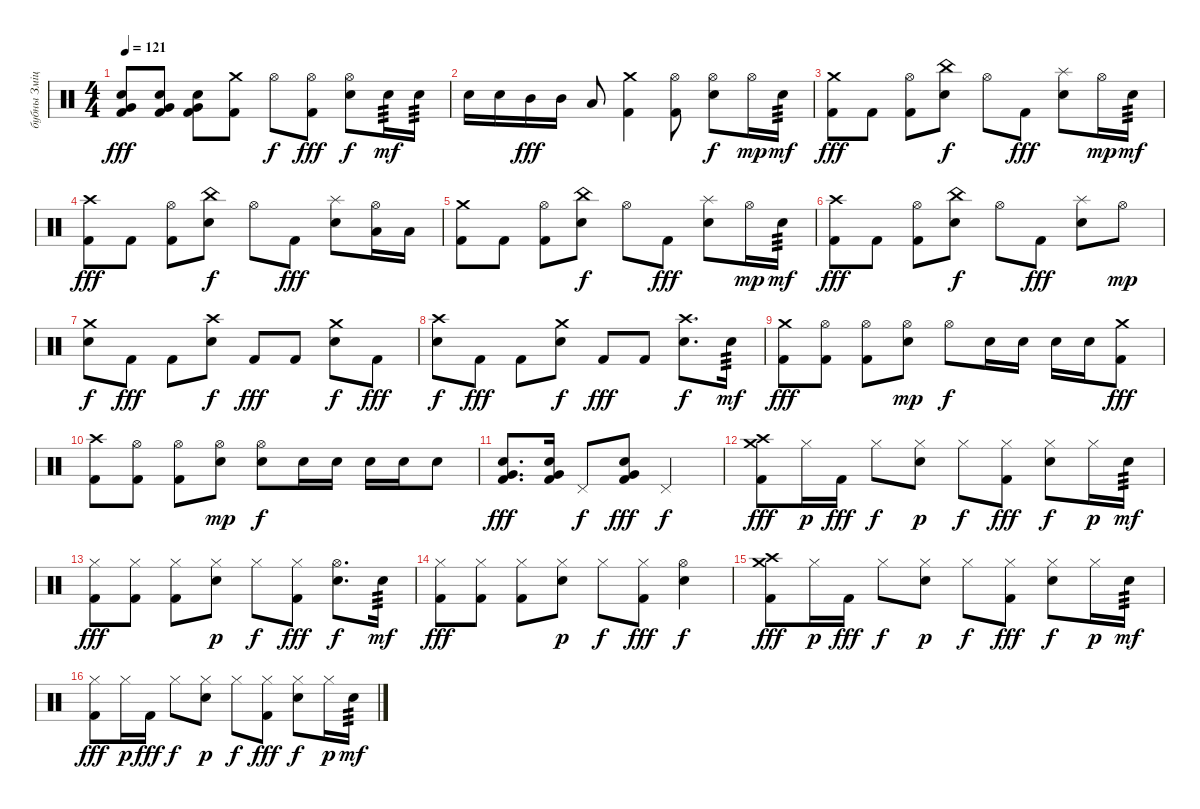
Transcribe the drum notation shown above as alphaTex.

\track ("бубны Змiцер " "бубны Змiц") {instrument percussion}
\staff {score}
\articulation defaults
\ts (4 4)
\tempo 121
\clef neutral
\ks c
("Very Low Tom (hit)" "Electric Snare (hit)" "Kick (hit) 2").8{dy fff} ("Very Low Tom (hit)" "Electric Snare (hit)" "Kick (hit) 2").8 ("Very Low Tom (hit)" "Electric Snare (hit)" "Kick (hit) 2").8 ("Crash medium (hit)" "Kick (hit) 2").8 "Hi-Hat (open)".8{dy f} ("Hi-Hat (open)" "Kick (hit) 2").8{dy fff} ("Hi-Hat (open)" "Electric Snare (hit)").8{dy f} "Electric Snare (hit)".16{tp 3 dy mf} "Electric Snare (hit)".16{tp 3} |
"Electric Snare (hit)".16 "Electric Snare (hit)".16 "Mid Tom (hit)".16{dy fff} "Mid Tom (hit)".16 "Low Tom (hit)".8 ("Crash medium (hit)" "Kick (hit) 2").4 ("Hi-Hat (open)" "Kick (hit) 2").8 ("Hi-Hat (open)" "Electric Snare (hit)").8{dy f} "Hi-Hat (open)".16{dy mp} "Electric Snare (hit)".16{tp 3 dy mf} |
("Crash medium (hit)" "Kick (hit) 2").8{dy fff} "Kick (hit) 2".8 ("Hi-Hat (open)" "Kick (hit) 2").8 ("China (hit)" "Electric Snare (hit)").8{dy f} "Hi-Hat (open)".8 "Kick (hit) 2".8{dy fff} ("Splash (hit)" "Electric Snare (hit)").8 "Hi-Hat (open)".16{dy mp} "Electric Snare (hit)".16{tp 3 dy mf} |
("Crash high (hit)" "Kick (hit) 2").8{dy fff} "Kick (hit) 2".8 ("Hi-Hat (open)" "Kick (hit) 2").8 ("China (hit)" "Electric Snare (hit)").8{dy f} "Hi-Hat (open)".8 "Kick (hit) 2".8{dy fff} ("Splash (hit)" "Electric Snare (hit)").8 ("Hi-Hat (open)" "Low Tom (hit)").16 "Low Tom (hit)".16 |
("Crash medium (hit)" "Kick (hit) 2").8 "Kick (hit) 2".8 ("Hi-Hat (open)" "Kick (hit) 2").8 ("China (hit)" "Electric Snare (hit)").8{dy f} "Hi-Hat (open)".8 "Kick (hit) 2".8{dy fff} ("Splash (hit)" "Electric Snare (hit)").8 "Hi-Hat (open)".16{dy mp} "Electric Snare (hit)".16{tp 3 dy mf} |
("Crash high (hit)" "Kick (hit) 2").8{dy fff} "Kick (hit) 2".8 ("Hi-Hat (open)" "Kick (hit) 2").8 ("China (hit)" "Electric Snare (hit)").8{dy f} "Hi-Hat (open)".8 "Kick (hit) 2".8{dy fff} ("Splash (hit)" "Electric Snare (hit)").8 "Hi-Hat (open)".8{dy mp} |
("Crash medium (hit)" "Electric Snare (hit)").8{dy f} "Kick (hit) 2".8{dy fff} "Kick (hit) 2".8 ("Crash high (hit)" "Electric Snare (hit)").8{dy f} "Kick (hit) 2".8{dy fff} "Kick (hit) 2".8 ("Crash medium (hit)" "Electric Snare (hit)").8{dy f} "Kick (hit) 2".8{dy fff} |
("Crash high (hit)" "Electric Snare (hit)").8{dy f} "Kick (hit) 2".8{dy fff} "Kick (hit) 2".8 ("Crash medium (hit)" "Electric Snare (hit)").8{dy f} "Kick (hit) 2".8{dy fff} "Kick (hit) 2".8 ("Crash high (hit)" "Electric Snare (hit)").8{d dy f} "Electric Snare (hit)".16{tp 3 dy mf} |
("Crash medium (hit)" "Kick (hit) 2").8{dy fff} ("Hi-Hat (open)" "Kick (hit) 2").8 ("Hi-Hat (open)" "Kick (hit) 2").8 ("Hi-Hat (open)" "Electric Snare (hit)").8{dy mp} "Hi-Hat (open)".8{dy f} "Electric Snare (hit)".16 "Electric Snare (hit)".16 "Electric Snare (hit)".16 "Electric Snare (hit)".16 ("Crash medium (hit)" "Kick (hit) 2").8{dy fff} |
("Crash high (hit)" "Kick (hit) 2").8 ("Hi-Hat (open)" "Kick (hit) 2").8 ("Hi-Hat (open)" "Kick (hit) 2").8 ("Hi-Hat (open)" "Electric Snare (hit)").8{dy mp} ("Hi-Hat (open)" "Electric Snare (hit)").8{dy f} "Electric Snare (hit)".16 "Electric Snare (hit)".16 "Electric Snare (hit)".16 "Electric Snare (hit)".16 "Electric Snare (hit)".8 |
("Very Low Tom (hit)" "Electric Snare (hit)" "Kick (hit) 2").8{d dy fff} ("Very Low Tom (hit)" "Electric Snare (hit)" "Kick (hit) 2").16 "Pedal Hi-Hat (hit)".8{dy f} ("Very Low Tom (hit)" "Electric Snare (hit)" "Kick (hit) 2").8{dy fff} "Pedal Hi-Hat (hit)".2{dy f} |
("Crash high (hit)" "Crash medium (hit)" "Kick (hit) 2").8{dy fff} "Hi-Hat (closed)".16{dy p} "Kick (hit) 2".16{dy fff} "Hi-Hat (closed)".8{dy f} ("Hi-Hat (closed)" "Electric Snare (hit)").8{dy p} "Hi-Hat (closed)".8{dy f} ("Hi-Hat (closed)" "Kick (hit) 2").8{dy fff} ("Hi-Hat (closed)" "Electric Snare (hit)").8{dy f} "Hi-Hat (closed)".16{dy p} "Electric Snare (hit)".16{tp 3 dy mf} |
("Hi-Hat (closed)" "Kick (hit) 2").8{dy fff} ("Hi-Hat (closed)" "Kick (hit) 2").8 ("Hi-Hat (closed)" "Kick (hit) 2").8 ("Hi-Hat (closed)" "Electric Snare (hit)").8{dy p} "Hi-Hat (closed)".8{dy f} ("Hi-Hat (closed)" "Kick (hit) 2").8{dy fff} ("Hi-Hat (open)" "Electric Snare (hit)").8{d dy f} "Electric Snare (hit)".16{tp 3 dy mf} |
("Hi-Hat (closed)" "Kick (hit) 2").8{dy fff} ("Hi-Hat (closed)" "Kick (hit) 2").8 ("Hi-Hat (closed)" "Kick (hit) 2").8 ("Hi-Hat (closed)" "Electric Snare (hit)").8{dy p} "Hi-Hat (closed)".8{dy f} ("Hi-Hat (closed)" "Kick (hit) 2").8{dy fff} ("Hi-Hat (open)" "Electric Snare (hit)").4{dy f} |
("Crash high (hit)" "Crash medium (hit)" "Kick (hit) 2").8{dy fff} "Hi-Hat (closed)".16{dy p} "Kick (hit) 2".16{dy fff} "Hi-Hat (closed)".8{dy f} ("Hi-Hat (closed)" "Electric Snare (hit)").8{dy p} "Hi-Hat (closed)".8{dy f} ("Hi-Hat (closed)" "Kick (hit) 2").8{dy fff} ("Hi-Hat (closed)" "Electric Snare (hit)").8{dy f} "Hi-Hat (closed)".16{dy p} "Electric Snare (hit)".16{tp 3 dy mf} |
("Hi-Hat (closed)" "Kick (hit) 2").8{dy fff} "Hi-Hat (closed)".16{dy p} "Kick (hit) 2".16{dy fff} "Hi-Hat (closed)".8{dy f} ("Hi-Hat (closed)" "Electric Snare (hit)").8{dy p} "Hi-Hat (closed)".8{dy f} ("Hi-Hat (closed)" "Kick (hit) 2").8{dy fff} ("Hi-Hat (closed)" "Electric Snare (hit)").8{dy f} "Hi-Hat (closed)".16{dy p} "Electric Snare (hit)".16{tp 3 dy mf}
